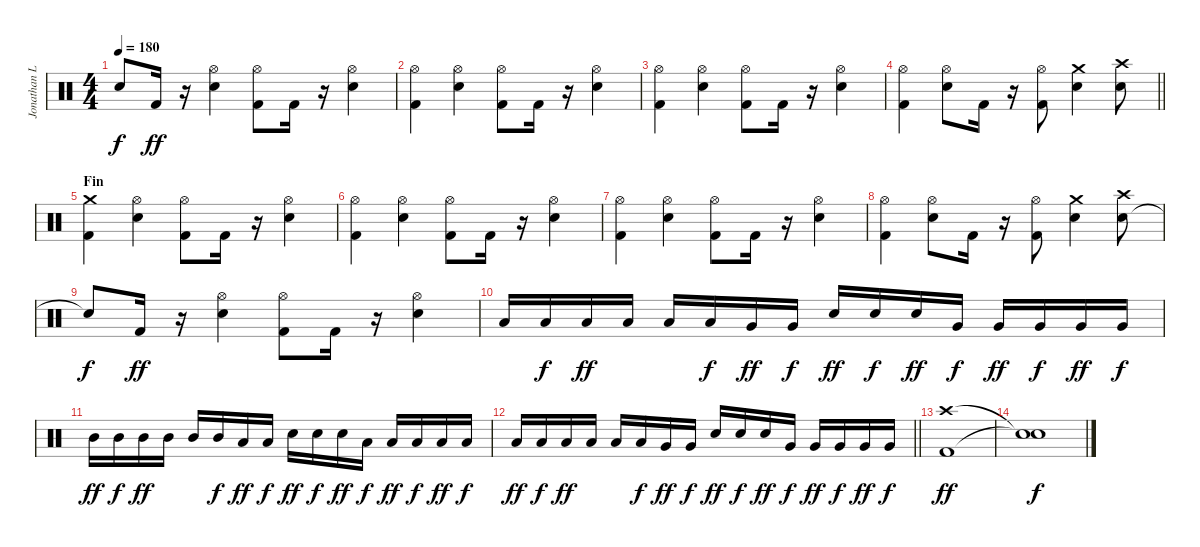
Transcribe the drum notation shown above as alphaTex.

\track ("Jonathan Lòpez" "Jonathan L") {instrument percussion}
\staff {score}
\articulation defaults
\ts (4 4)
\tempo 180
\clef neutral
\ks c "Snare (hit)"{t}.8{dy f} "Kick (hit) 2".16{dy ff}
r.16 ("Electric Snare (hit)" "Hi-Hat (open)").4 ("Kick (hit) 2" "Hi-Hat (open)").8 "Kick (hit) 2".16 r.16 ("Electric Snare (hit)" "Hi-Hat (open)").4 |
("Kick (hit) 2" "Hi-Hat (open)").4 ("Electric Snare (hit)" "Hi-Hat (open)").4 ("Kick (hit) 2" "Hi-Hat (open)").8 "Kick (hit) 2".16 r.16 ("Electric Snare (hit)" "Hi-Hat (open)").4 |
("Kick (hit) 2" "Hi-Hat (open)").4 ("Electric Snare (hit)" "Hi-Hat (open)").4 ("Kick (hit) 2" "Hi-Hat (open)").8 "Kick (hit) 2".16 r.16 ("Electric Snare (hit)" "Hi-Hat (open)").4 |
\barLineRight lightlight
("Kick (hit) 2" "Hi-Hat (open)").4 ("Electric Snare (hit)" "Hi-Hat (open)").8 "Kick (hit) 2".16 r.16 ("Kick (hit) 2" "Hi-Hat (open)").8 ("Electric Snare (hit)" "Crash medium (hit)").4 ("Electric Snare (hit)" "Crash high (hit)").8 |
\section ("" "Fin")
("Kick (hit) 2" "Crash medium (hit)").4 ("Electric Snare (hit)" "Hi-Hat (open)").4 ("Kick (hit) 2" "Hi-Hat (open)").8 "Kick (hit) 2".16 r.16 ("Electric Snare (hit)" "Hi-Hat (open)").4 |
("Hi-Hat (open)" "Kick (hit) 2").4 ("Hi-Hat (open)" "Electric Snare (hit)").4 ("Hi-Hat (open)" "Kick (hit) 2").8 "Kick (hit) 2".16 r.16 ("Hi-Hat (open)" "Electric Snare (hit)").4 |
("Kick (hit) 2" "Hi-Hat (open)").4 ("Electric Snare (hit)" "Hi-Hat (open)").4 ("Kick (hit) 2" "Hi-Hat (open)").8 "Kick (hit) 2".16 r.16 ("Electric Snare (hit)" "Hi-Hat (open)").4 |
("Kick (hit) 2" "Hi-Hat (open)").4 ("Electric Snare (hit)" "Hi-Hat (open)").8 "Kick (hit) 2".16 r.16 ("Kick (hit) 2" "Hi-Hat (open)").8 ("Electric Snare (hit)" "Crash medium (hit)").4 ("Electric Snare (hit)" "Crash high (hit)").8 |
"Snare (hit)"{t}.8{dy f} "Kick (hit) 2".16{dy ff} r.16 ("Electric Snare (hit)" "Hi-Hat (open)").4 ("Kick (hit) 2" "Hi-Hat (open)").8 "Kick (hit) 2".16 r.16 ("Electric Snare (hit)" "Hi-Hat (open)").4 |
"Low Tom (hit)".16 "Low Tom (hit)".16{dy f} "Low Tom (hit)".16{dy ff} "Low Tom (hit)".16 "Low Tom (hit)".16 "Low Tom (hit)".16{dy f} "Very Low Tom (hit)".16{dy ff} "Very Low Tom (hit)".16{dy f} "Electric Snare (hit)".16{dy ff} "Electric Snare (hit)".16{dy f} "Electric Snare (hit)".16{dy ff} "Very Low Tom (hit)".16{dy f} "Very Low Tom (hit)".16{dy ff} "Very Low Tom (hit)".16{dy f} "Very Low Tom (hit)".16{dy ff} "Very Low Tom (hit)".16{dy f} |
"Mid Tom (hit)".16{dy ff} "Mid Tom (hit)".16{dy f} "Mid Tom (hit)".16{dy ff} "Mid Tom (hit)".16 "Mid Tom (hit)".16 "Mid Tom (hit)".16{dy f} "Low Tom (hit)".16{dy ff} "Low Tom (hit)".16{dy f} "Electric Snare (hit)".16{dy ff} "Electric Snare (hit)".16{dy f} "Electric Snare (hit)".16{dy ff} "Low Tom (hit)".16{dy f} "Low Tom (hit)".16{dy ff} "Low Tom (hit)".16{dy f} "Low Tom (hit)".16{dy ff} "Low Tom (hit)".16{dy f} |
\barLineRight lightlight "Low Tom (hit)".16{dy ff} "Low Tom (hit)".16{dy f} "Low Tom (hit)".16{dy ff} "Low Tom (hit)".16 "Low Tom (hit)".16 "Low Tom (hit)".16{dy f} "Very Low Tom (hit)".16{dy ff} "Very Low Tom (hit)".16{dy f} "Electric Snare (hit)".16{dy ff} "Electric Snare (hit)".16{dy f} "Electric Snare (hit)".16{dy ff} "Very Low Tom (hit)".16{dy f} "Very Low Tom (hit)".16{dy ff} "Very Low Tom (hit)".16{dy f} "Very Low Tom (hit)".16{dy ff} "Very Low Tom (hit)".16{dy f}
|
("Crash high (hit)" "Kick (hit) 2").1{dy ff} |
("Snare (hit)"{t} "Snare (hit)"{t}).1{dy f}
